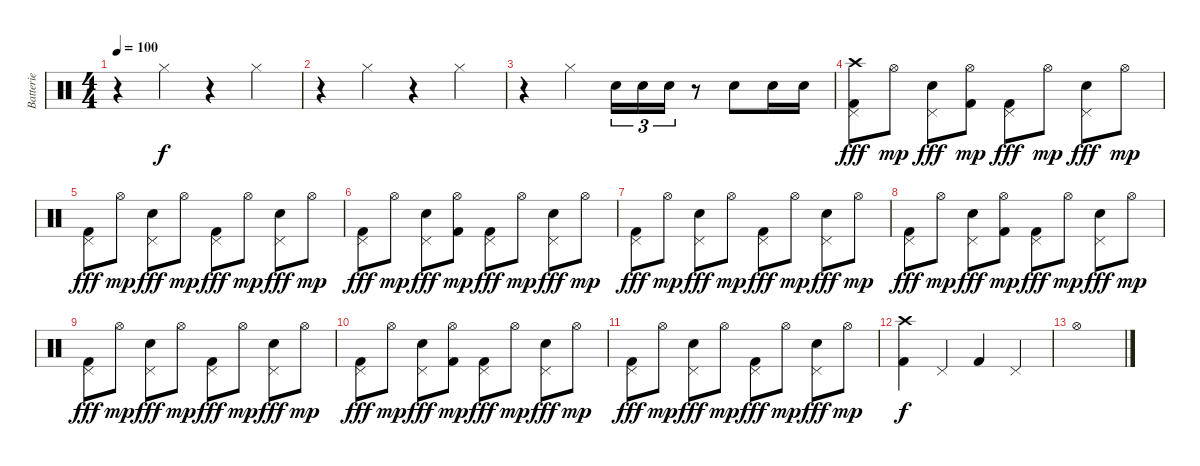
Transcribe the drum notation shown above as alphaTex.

\track ("Batterie" "Batterie") {instrument percussion}
\staff {score}
\articulation defaults
\ts (4 4)
\tempo 100
\clef neutral
\ks c
r.4{dy f} "Hi-Hat (closed)".4 r.4 "Hi-Hat (closed)".4 |
r.4 "Hi-Hat (closed)".4 r.4 "Hi-Hat (closed)".4 |
r.4 "Hi-Hat (closed)".4 "Electric Snare (hit)".16{tu (3 2)} "Electric Snare (hit)".16{tu (3 2)} "Electric Snare (hit)".16{tu (3 2)} r.8 "Electric Snare (hit)".8 "Electric Snare (hit)".16 "Electric Snare (hit)".16 |
("Pedal Hi-Hat (hit)" "Kick (hit) 2" "Crash high (hit)").8{dy fff} "Hi-Hat (open)".8{dy mp} ("Pedal Hi-Hat (hit)" "Electric Snare (hit)").8{dy fff} ("Hi-Hat (open)" "Kick (hit) 2").8{dy mp} ("Pedal Hi-Hat (hit)" "Kick (hit) 2").8{dy fff} "Hi-Hat (open)".8{dy mp} ("Pedal Hi-Hat (hit)" "Electric Snare (hit)").8{dy fff} "Hi-Hat (open)".8{dy mp} |
("Pedal Hi-Hat (hit)" "Kick (hit) 2").8{dy fff} "Hi-Hat (open)".8{dy mp} ("Pedal Hi-Hat (hit)" "Electric Snare (hit)").8{dy fff} "Hi-Hat (open)".8{dy mp} ("Pedal Hi-Hat (hit)" "Kick (hit) 2").8{dy fff} "Hi-Hat (open)".8{dy mp} ("Pedal Hi-Hat (hit)" "Electric Snare (hit)").8{dy fff} "Hi-Hat (open)".8{dy mp} |
("Pedal Hi-Hat (hit)" "Kick (hit) 2").8{dy fff} "Hi-Hat (open)".8{dy mp} ("Pedal Hi-Hat (hit)" "Electric Snare (hit)").8{dy fff} ("Hi-Hat (open)" "Kick (hit) 2").8{dy mp} ("Pedal Hi-Hat (hit)" "Kick (hit) 2").8{dy fff} "Hi-Hat (open)".8{dy mp} ("Pedal Hi-Hat (hit)" "Electric Snare (hit)").8{dy fff} "Hi-Hat (open)".8{dy mp} |
("Pedal Hi-Hat (hit)" "Kick (hit) 2").8{dy fff} "Hi-Hat (open)".8{dy mp} ("Pedal Hi-Hat (hit)" "Electric Snare (hit)").8{dy fff} "Hi-Hat (open)".8{dy mp} ("Pedal Hi-Hat (hit)" "Kick (hit) 2").8{dy fff} "Hi-Hat (open)".8{dy mp} ("Pedal Hi-Hat (hit)" "Electric Snare (hit)").8{dy fff} "Hi-Hat (open)".8{dy mp} |
("Pedal Hi-Hat (hit)" "Kick (hit) 2").8{dy fff} "Hi-Hat (open)".8{dy mp} ("Pedal Hi-Hat (hit)" "Electric Snare (hit)").8{dy fff} ("Hi-Hat (open)" "Kick (hit) 2").8{dy mp} ("Pedal Hi-Hat (hit)" "Kick (hit) 2").8{dy fff} "Hi-Hat (open)".8{dy mp} ("Pedal Hi-Hat (hit)" "Electric Snare (hit)").8{dy fff} "Hi-Hat (open)".8{dy mp} |
("Pedal Hi-Hat (hit)" "Kick (hit) 2").8{dy fff} "Hi-Hat (open)".8{dy mp} ("Pedal Hi-Hat (hit)" "Electric Snare (hit)").8{dy fff} "Hi-Hat (open)".8{dy mp} ("Pedal Hi-Hat (hit)" "Kick (hit) 2").8{dy fff} "Hi-Hat (open)".8{dy mp} ("Pedal Hi-Hat (hit)" "Electric Snare (hit)").8{dy fff} "Hi-Hat (open)".8{dy mp} |
("Pedal Hi-Hat (hit)" "Kick (hit) 2").8{dy fff} "Hi-Hat (open)".8{dy mp} ("Pedal Hi-Hat (hit)" "Electric Snare (hit)").8{dy fff} ("Hi-Hat (open)" "Kick (hit) 2").8{dy mp} ("Pedal Hi-Hat (hit)" "Kick (hit) 2").8{dy fff} "Hi-Hat (open)".8{dy mp} ("Pedal Hi-Hat (hit)" "Electric Snare (hit)").8{dy fff} "Hi-Hat (open)".8{dy mp} |
("Pedal Hi-Hat (hit)" "Kick (hit) 2").8{dy fff} "Hi-Hat (open)".8{dy mp} ("Pedal Hi-Hat (hit)" "Electric Snare (hit)").8{dy fff} "Hi-Hat (open)".8{dy mp} ("Pedal Hi-Hat (hit)" "Kick (hit) 2").8{dy fff} "Hi-Hat (open)".8{dy mp} ("Pedal Hi-Hat (hit)" "Electric Snare (hit)").8{dy fff} "Hi-Hat (open)".8{dy mp} |
("Kick (hit) 2" "Crash high (hit)").4{dy f} "Pedal Hi-Hat (hit)".4 "Kick (hit) 2".4 "Pedal Hi-Hat (hit)".4 |
"Hi-Hat (open)".1
